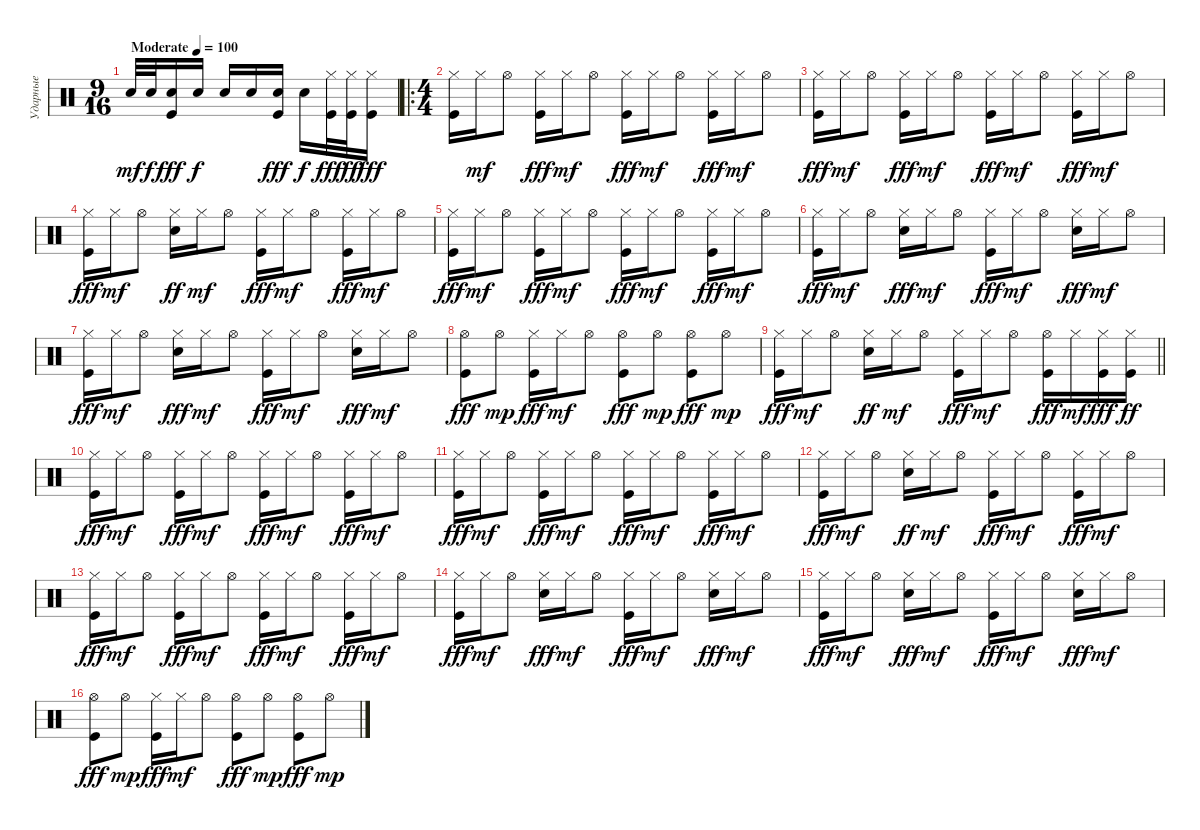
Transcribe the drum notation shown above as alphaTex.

\track ("Ударные" "Ударные") {instrument percussion}
\staff {score}
\articulation defaults
\ts (9 16)
\tempo (100 "Moderate")
\clef neutral
\ks c "Electric Snare (hit)".32{dy mf} "Electric Snare (hit)".32{dy f}
("Electric Snare (hit)" "Kick (hit)").16{dy fff} "Electric Snare (hit)".16{dy f} "Electric Snare (hit)".16 "Electric Snare (hit)".16 ("Electric Snare (hit)" "Kick (hit)").16{dy fff} "Electric Snare (hit)".16{dy f} ("Hi-Hat (closed)" "Kick (hit)").32{dy fff} ("Hi-Hat (closed)" "Kick (hit)").32{dy ff} ("Hi-Hat (closed)" "Kick (hit)").16{dy fff} |
\ro
\ts (4 4)
("Hi-Hat (closed)" "Kick (hit)").16 "Hi-Hat (closed)".16{dy mf} "Hi-Hat (open)".8 ("Hi-Hat (closed)" "Kick (hit)").16{dy fff} "Hi-Hat (closed)".16{dy mf} "Hi-Hat (open)".8 ("Hi-Hat (closed)" "Kick (hit)").16{dy fff} "Hi-Hat (closed)".16{dy mf} "Hi-Hat (open)".8 ("Hi-Hat (closed)" "Kick (hit)").16{dy fff} "Hi-Hat (closed)".16{dy mf} "Hi-Hat (open)".8 |
("Hi-Hat (closed)" "Kick (hit)").16{dy fff} "Hi-Hat (closed)".16{dy mf} "Hi-Hat (open)".8 ("Hi-Hat (closed)" "Kick (hit)").16{dy fff} "Hi-Hat (closed)".16{dy mf} "Hi-Hat (open)".8 ("Hi-Hat (closed)" "Kick (hit)").16{dy fff} "Hi-Hat (closed)".16{dy mf} "Hi-Hat (open)".8 ("Hi-Hat (closed)" "Kick (hit)").16{dy fff} "Hi-Hat (closed)".16{dy mf} "Hi-Hat (open)".8 |
("Hi-Hat (closed)" "Kick (hit)").16{dy fff} "Hi-Hat (closed)".16{dy mf} "Hi-Hat (open)".8 ("Hi-Hat (closed)" "Electric Snare (hit)").16{dy ff} "Hi-Hat (closed)".16{dy mf} "Hi-Hat (open)".8 ("Hi-Hat (closed)" "Kick (hit)").16{dy fff} "Hi-Hat (closed)".16{dy mf} "Hi-Hat (open)".8 ("Hi-Hat (closed)" "Kick (hit)").16{dy fff} "Hi-Hat (closed)".16{dy mf} "Hi-Hat (open)".8 |
("Hi-Hat (closed)" "Kick (hit)").16{dy fff} "Hi-Hat (closed)".16{dy mf} "Hi-Hat (open)".8 ("Hi-Hat (closed)" "Kick (hit)").16{dy fff} "Hi-Hat (closed)".16{dy mf} "Hi-Hat (open)".8 ("Hi-Hat (closed)" "Kick (hit)").16{dy fff} "Hi-Hat (closed)".16{dy mf} "Hi-Hat (open)".8 ("Hi-Hat (closed)" "Kick (hit)").16{dy fff} "Hi-Hat (closed)".16{dy mf} "Hi-Hat (open)".8 |
("Hi-Hat (closed)" "Kick (hit)").16{dy fff} "Hi-Hat (closed)".16{dy mf} "Hi-Hat (open)".8 ("Hi-Hat (closed)" "Electric Snare (hit)").16{dy fff} "Hi-Hat (closed)".16{dy mf} "Hi-Hat (open)".8 ("Hi-Hat (closed)" "Kick (hit)").16{dy fff} "Hi-Hat (closed)".16{dy mf} "Hi-Hat (open)".8 ("Hi-Hat (closed)" "Electric Snare (hit)").16{dy fff} "Hi-Hat (closed)".16{dy mf} "Hi-Hat (open)".8 |
("Hi-Hat (closed)" "Kick (hit)").16{dy fff} "Hi-Hat (closed)".16{dy mf} "Hi-Hat (open)".8 ("Hi-Hat (closed)" "Electric Snare (hit)").16{dy fff} "Hi-Hat (closed)".16{dy mf} "Hi-Hat (open)".8 ("Hi-Hat (closed)" "Kick (hit)").16{dy fff} "Hi-Hat (closed)".16{dy mf} "Hi-Hat (open)".8 ("Hi-Hat (closed)" "Electric Snare (hit)").16{dy fff} "Hi-Hat (closed)".16{dy mf} "Hi-Hat (open)".8 |
("Hi-Hat (open)" "Kick (hit)").8{dy fff} "Hi-Hat (open)".8{dy mp} ("Hi-Hat (closed)" "Kick (hit)").16{dy fff} "Hi-Hat (closed)".16{dy mf} "Hi-Hat (open)".8 ("Hi-Hat (open)" "Kick (hit)").8{dy fff} "Hi-Hat (open)".8{dy mp} ("Hi-Hat (open)" "Kick (hit)").8{dy fff} "Hi-Hat (open)".8{dy mp} |
\barLineRight lightlight
("Hi-Hat (closed)" "Kick (hit)").16{dy fff} "Hi-Hat (closed)".16{dy mf} "Hi-Hat (open)".8 ("Hi-Hat (closed)" "Electric Snare (hit)").16{dy ff} "Hi-Hat (closed)".16{dy mf} "Hi-Hat (open)".8 ("Hi-Hat (closed)" "Kick (hit)").16{dy fff} "Hi-Hat (closed)".16{dy mf} "Hi-Hat (open)".8 ("Hi-Hat (open)" "Kick (hit)").16{dy fff} "Hi-Hat (closed)".16{dy mf} ("Hi-Hat (closed)" "Kick (hit)").16{dy fff} ("Hi-Hat (closed)" "Kick (hit)").16{dy ff} |
("Hi-Hat (closed)" "Kick (hit)").16{dy fff} "Hi-Hat (closed)".16{dy mf} "Hi-Hat (open)".8 ("Hi-Hat (closed)" "Kick (hit)").16{dy fff} "Hi-Hat (closed)".16{dy mf} "Hi-Hat (open)".8 ("Hi-Hat (closed)" "Kick (hit)").16{dy fff} "Hi-Hat (closed)".16{dy mf} "Hi-Hat (open)".8 ("Hi-Hat (closed)" "Kick (hit)").16{dy fff} "Hi-Hat (closed)".16{dy mf} "Hi-Hat (open)".8 |
("Hi-Hat (closed)" "Kick (hit)").16{dy fff} "Hi-Hat (closed)".16{dy mf} "Hi-Hat (open)".8 ("Hi-Hat (closed)" "Kick (hit)").16{dy fff} "Hi-Hat (closed)".16{dy mf} "Hi-Hat (open)".8 ("Hi-Hat (closed)" "Kick (hit)").16{dy fff} "Hi-Hat (closed)".16{dy mf} "Hi-Hat (open)".8 ("Hi-Hat (closed)" "Kick (hit)").16{dy fff} "Hi-Hat (closed)".16{dy mf} "Hi-Hat (open)".8 |
("Hi-Hat (closed)" "Kick (hit)").16{dy fff} "Hi-Hat (closed)".16{dy mf} "Hi-Hat (open)".8 ("Hi-Hat (closed)" "Electric Snare (hit)").16{dy ff} "Hi-Hat (closed)".16{dy mf} "Hi-Hat (open)".8 ("Hi-Hat (closed)" "Kick (hit)").16{dy fff} "Hi-Hat (closed)".16{dy mf} "Hi-Hat (open)".8 ("Hi-Hat (closed)" "Kick (hit)").16{dy fff} "Hi-Hat (closed)".16{dy mf} "Hi-Hat (open)".8 |
("Hi-Hat (closed)" "Kick (hit)").16{dy fff} "Hi-Hat (closed)".16{dy mf} "Hi-Hat (open)".8 ("Hi-Hat (closed)" "Kick (hit)").16{dy fff} "Hi-Hat (closed)".16{dy mf} "Hi-Hat (open)".8 ("Hi-Hat (closed)" "Kick (hit)").16{dy fff} "Hi-Hat (closed)".16{dy mf} "Hi-Hat (open)".8 ("Hi-Hat (closed)" "Kick (hit)").16{dy fff} "Hi-Hat (closed)".16{dy mf} "Hi-Hat (open)".8 |
("Hi-Hat (closed)" "Kick (hit)").16{dy fff} "Hi-Hat (closed)".16{dy mf} "Hi-Hat (open)".8 ("Hi-Hat (closed)" "Electric Snare (hit)").16{dy fff} "Hi-Hat (closed)".16{dy mf} "Hi-Hat (open)".8 ("Hi-Hat (closed)" "Kick (hit)").16{dy fff} "Hi-Hat (closed)".16{dy mf} "Hi-Hat (open)".8 ("Hi-Hat (closed)" "Electric Snare (hit)").16{dy fff} "Hi-Hat (closed)".16{dy mf} "Hi-Hat (open)".8 |
("Hi-Hat (closed)" "Kick (hit)").16{dy fff} "Hi-Hat (closed)".16{dy mf} "Hi-Hat (open)".8 ("Hi-Hat (closed)" "Electric Snare (hit)").16{dy fff} "Hi-Hat (closed)".16{dy mf} "Hi-Hat (open)".8 ("Hi-Hat (closed)" "Kick (hit)").16{dy fff} "Hi-Hat (closed)".16{dy mf} "Hi-Hat (open)".8 ("Hi-Hat (closed)" "Electric Snare (hit)").16{dy fff} "Hi-Hat (closed)".16{dy mf} "Hi-Hat (open)".8 |
("Hi-Hat (open)" "Kick (hit)").8{dy fff} "Hi-Hat (open)".8{dy mp} ("Hi-Hat (closed)" "Kick (hit)").16{dy fff} "Hi-Hat (closed)".16{dy mf} "Hi-Hat (open)".8 ("Hi-Hat (open)" "Kick (hit)").8{dy fff} "Hi-Hat (open)".8{dy mp} ("Hi-Hat (open)" "Kick (hit)").8{dy fff} "Hi-Hat (open)".8{dy mp}
